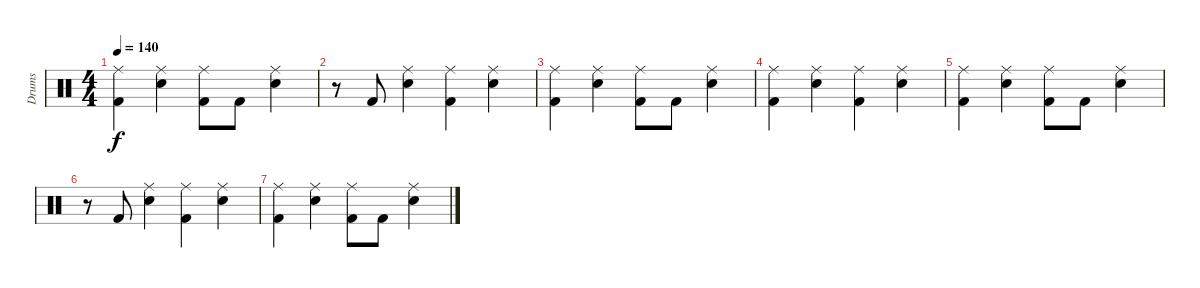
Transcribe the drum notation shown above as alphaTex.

\track ("Drums" "Drums") {instrument percussion}
\staff {score}
\articulation defaults
\ts (4 4)
\tempo 140
\clef neutral
\ks c
("Ride (middle)" "Kick (hit) 2").4{dy f} ("Ride (middle)" "Electric Snare (hit)").4 ("Ride (middle)" "Kick (hit) 2").8 "Kick (hit) 2".8 ("Ride (middle)" "Electric Snare (hit)").4 |
r.8 "Kick (hit) 2".8 ("Ride (middle)" "Electric Snare (hit)").4 ("Ride (middle)" "Kick (hit) 2").4 ("Ride (middle)" "Electric Snare (hit)").4 |
("Ride (middle)" "Kick (hit) 2").4 ("Ride (middle)" "Electric Snare (hit)").4 ("Ride (middle)" "Kick (hit) 2").8 "Kick (hit) 2".8 ("Ride (middle)" "Electric Snare (hit)").4 |
("Ride (middle)" "Kick (hit) 2").4 ("Ride (middle)" "Electric Snare (hit)").4 ("Ride (middle)" "Kick (hit) 2").4 ("Ride (middle)" "Electric Snare (hit)").4 |
("Ride (middle)" "Kick (hit) 2").4 ("Ride (middle)" "Electric Snare (hit)").4 ("Ride (middle)" "Kick (hit) 2").8 "Kick (hit) 2".8 ("Ride (middle)" "Electric Snare (hit)").4 |
r.8 "Kick (hit) 2".8 ("Ride (middle)" "Electric Snare (hit)").4 ("Ride (middle)" "Kick (hit) 2").4 ("Ride (middle)" "Electric Snare (hit)").4 |
("Ride (middle)" "Kick (hit) 2").4 ("Ride (middle)" "Electric Snare (hit)").4 ("Ride (middle)" "Kick (hit) 2").8 "Kick (hit) 2".8 ("Ride (middle)" "Electric Snare (hit)").4
